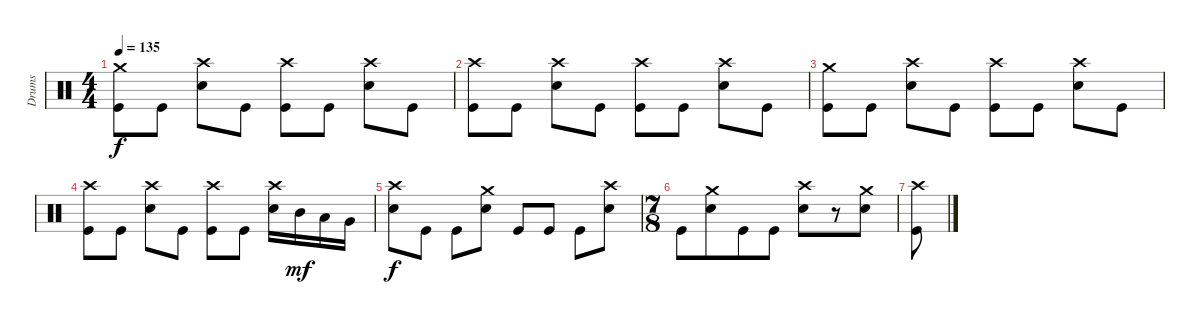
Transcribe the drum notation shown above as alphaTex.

\track ("Drums" "Drums") {instrument percussion}
\staff {score}
\articulation defaults
\ts (4 4)
\tempo 135
\clef neutral
\ks c
("Crash medium (hit)" "Kick (hit)").8{dy f} "Kick (hit)".8 ("Crash high (hit)" "Electric Snare (hit)").8 "Kick (hit)".8 ("Crash high (hit)" "Kick (hit)").8 "Kick (hit)".8 ("Crash high (hit)" "Electric Snare (hit)").8 "Kick (hit)".8 |
("Crash high (hit)" "Kick (hit)").8 "Kick (hit)".8 ("Crash high (hit)" "Electric Snare (hit)").8 "Kick (hit)".8 ("Crash high (hit)" "Kick (hit)").8 "Kick (hit)".8 ("Crash high (hit)" "Electric Snare (hit)").8 "Kick (hit)".8 |
("Crash medium (hit)" "Kick (hit)").8 "Kick (hit)".8 ("Crash high (hit)" "Electric Snare (hit)").8 "Kick (hit)".8 ("Crash high (hit)" "Kick (hit)").8 "Kick (hit)".8 ("Crash high (hit)" "Electric Snare (hit)").8 "Kick (hit)".8 |
("Crash high (hit)" "Kick (hit)").8 "Kick (hit)".8 ("Crash high (hit)" "Electric Snare (hit)").8 "Kick (hit)".8 ("Crash high (hit)" "Kick (hit)").8 "Kick (hit)".8 ("Crash high (hit)" "Electric Snare (hit)").16 "Mid Tom (hit)".16{dy mf} "Low Tom (hit)".16 "Very Low Tom (hit)".16 |
("Crash high (hit)" "Electric Snare (hit)").8{dy f} "Kick (hit)".8 "Kick (hit)".8 ("Crash medium (hit)" "Electric Snare (hit)").8 "Kick (hit)".8 "Kick (hit)".8 "Kick (hit)".8 ("Crash high (hit)" "Electric Snare (hit)").8 |
\ts (7 8)
"Kick (hit)".8 ("Crash medium (hit)" "Electric Snare (hit)").8 "Kick (hit)".8 "Kick (hit)".8 ("Crash high (hit)" "Electric Snare (hit)").8 r.8 ("Crash medium (hit)" "Electric Snare (hit)").8 |
("Crash high (hit)" "Kick (hit)").8
